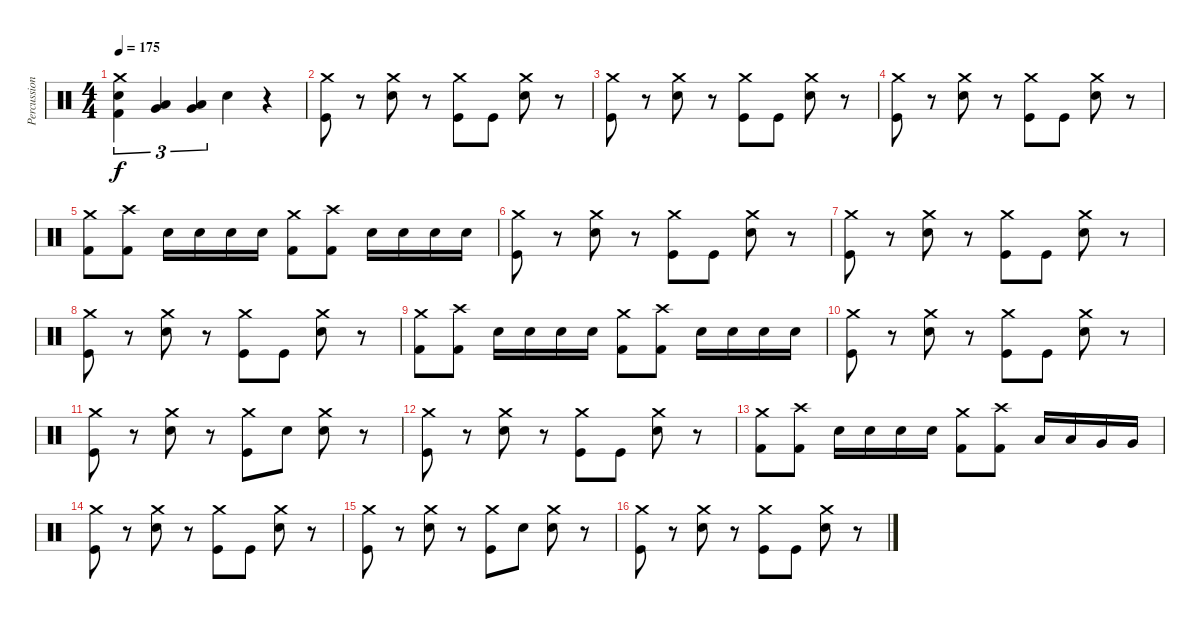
\track ("Percussion" "Percussion") {instrument percussion}
\staff {score}
\articulation defaults
\ts (4 4)
\tempo 175
\clef neutral
\ks c
("Crash medium (hit)" "Electric Snare (hit)" "Kick (hit) 2").4{tu (3 2) dy f} ("Very Low Tom (hit)" "Low Tom (hit)").4{tu (3 2)} ("Very Low Tom (hit)" "Low Tom (hit)").4{tu (3 2)} "Electric Snare (hit)".4 r.4 |
("Crash medium (hit)" "Kick (hit)").8 r.8 ("Crash medium (hit)" "Electric Snare (hit)").8 r.8 ("Crash medium (hit)" "Kick (hit)").8 "Kick (hit)".8 ("Crash medium (hit)" "Electric Snare (hit)").8 r.8 |
("Crash medium (hit)" "Kick (hit)").8 r.8 ("Crash medium (hit)" "Electric Snare (hit)").8 r.8 ("Crash medium (hit)" "Kick (hit)").8 "Kick (hit)".8 ("Crash medium (hit)" "Electric Snare (hit)").8 r.8 |
("Crash medium (hit)" "Kick (hit)").8 r.8 ("Crash medium (hit)" "Electric Snare (hit)").8 r.8 ("Crash medium (hit)" "Kick (hit)").8 "Kick (hit)".8 ("Crash medium (hit)" "Electric Snare (hit)").8 r.8 |
("Crash medium (hit)" "Kick (hit) 2").8 ("Crash high (hit)" "Kick (hit) 2").8 "Electric Snare (hit)".16 "Electric Snare (hit)".16 "Electric Snare (hit)".16 "Electric Snare (hit)".16 ("Crash medium (hit)" "Kick (hit) 2").8 ("Crash high (hit)" "Kick (hit) 2").8 "Electric Snare (hit)".16 "Electric Snare (hit)".16 "Electric Snare (hit)".16 "Electric Snare (hit)".16 |
("Crash medium (hit)" "Kick (hit)").8 r.8 ("Crash medium (hit)" "Electric Snare (hit)").8 r.8 ("Crash medium (hit)" "Kick (hit)").8 "Kick (hit)".8 ("Crash medium (hit)" "Electric Snare (hit)").8 r.8 |
("Crash medium (hit)" "Kick (hit)").8 r.8 ("Crash medium (hit)" "Electric Snare (hit)").8 r.8 ("Crash medium (hit)" "Kick (hit)").8 "Kick (hit)".8 ("Crash medium (hit)" "Electric Snare (hit)").8 r.8 |
("Crash medium (hit)" "Kick (hit)").8 r.8 ("Crash medium (hit)" "Electric Snare (hit)").8 r.8 ("Crash medium (hit)" "Kick (hit)").8 "Kick (hit)".8 ("Crash medium (hit)" "Electric Snare (hit)").8 r.8 |
("Crash medium (hit)" "Kick (hit) 2").8 ("Crash high (hit)" "Kick (hit) 2").8 "Electric Snare (hit)".16 "Electric Snare (hit)".16 "Electric Snare (hit)".16 "Electric Snare (hit)".16 ("Crash medium (hit)" "Kick (hit) 2").8 ("Crash high (hit)" "Kick (hit) 2").8 "Electric Snare (hit)".16 "Electric Snare (hit)".16 "Electric Snare (hit)".16 "Electric Snare (hit)".16 |
("Crash medium (hit)" "Kick (hit)").8 r.8 ("Crash medium (hit)" "Electric Snare (hit)").8 r.8 ("Crash medium (hit)" "Kick (hit)").8 "Kick (hit)".8 ("Crash medium (hit)" "Electric Snare (hit)").8 r.8 |
("Crash medium (hit)" "Kick (hit)").8 r.8 ("Crash medium (hit)" "Electric Snare (hit)").8 r.8 ("Crash medium (hit)" "Kick (hit)").8 "Electric Snare (hit)".8 ("Crash medium (hit)" "Electric Snare (hit)").8 r.8 |
("Crash medium (hit)" "Kick (hit)").8 r.8 ("Crash medium (hit)" "Electric Snare (hit)").8 r.8 ("Crash medium (hit)" "Kick (hit)").8 "Kick (hit)".8 ("Crash medium (hit)" "Electric Snare (hit)").8 r.8 |
("Crash medium (hit)" "Kick (hit) 2").8 ("Crash high (hit)" "Kick (hit) 2").8 "Electric Snare (hit)".16 "Electric Snare (hit)".16 "Electric Snare (hit)".16 "Electric Snare (hit)".16 ("Crash medium (hit)" "Kick (hit) 2").8 ("Crash high (hit)" "Kick (hit) 2").8 "Low Tom (hit)".16 "Low Tom (hit)".16 "Very Low Tom (hit)".16 "Very Low Tom (hit)".16 |
("Crash medium (hit)" "Kick (hit)").8 r.8 ("Crash medium (hit)" "Electric Snare (hit)").8 r.8 ("Crash medium (hit)" "Kick (hit)").8 "Kick (hit)".8 ("Crash medium (hit)" "Electric Snare (hit)").8 r.8 |
("Crash medium (hit)" "Kick (hit)").8 r.8 ("Crash medium (hit)" "Electric Snare (hit)").8 r.8 ("Crash medium (hit)" "Kick (hit)").8 "Electric Snare (hit)".8 ("Crash medium (hit)" "Electric Snare (hit)").8 r.8 |
("Crash medium (hit)" "Kick (hit)").8 r.8 ("Crash medium (hit)" "Electric Snare (hit)").8 r.8 ("Crash medium (hit)" "Kick (hit)").8 "Kick (hit)".8 ("Crash medium (hit)" "Electric Snare (hit)").8 r.8
